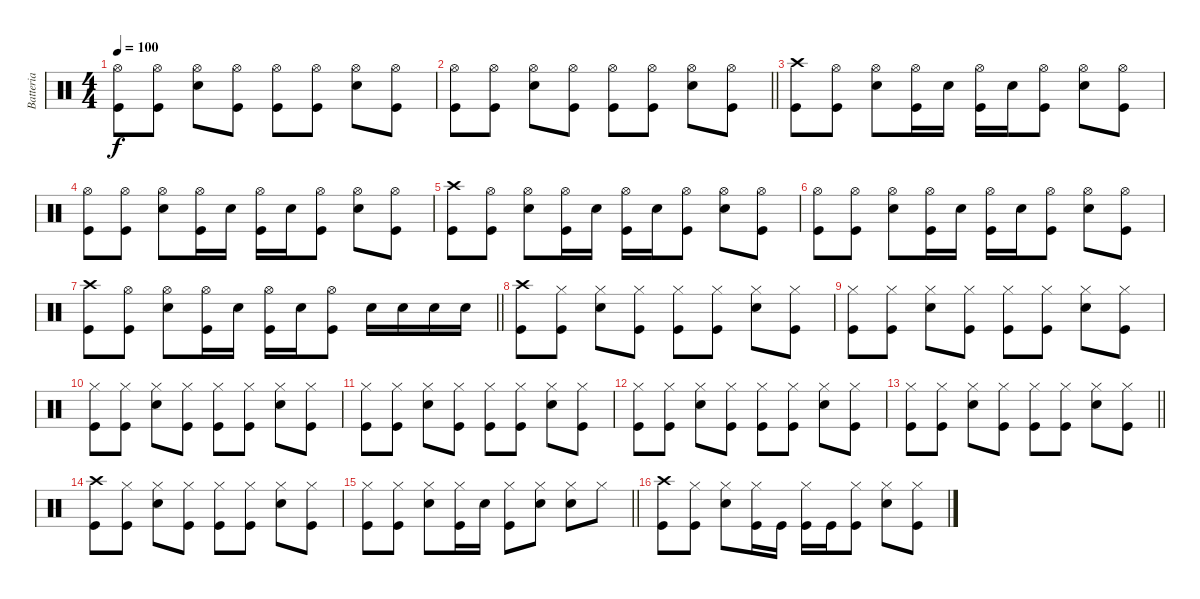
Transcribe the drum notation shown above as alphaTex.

\track ("Batteria" "Batteria") {instrument percussion}
\staff {score}
\articulation defaults
\ts (4 4)
\tempo 100
\clef neutral
\ks c
("Hi-Hat (open)" "Kick (hit)").8{dy f} ("Hi-Hat (open)" "Kick (hit)").8 ("Snare (hit) 2" "Hi-Hat (open)").8 ("Hi-Hat (open)" "Kick (hit)").8 ("Hi-Hat (open)" "Kick (hit)").8 ("Hi-Hat (open)" "Kick (hit)").8 ("Snare (hit) 2" "Hi-Hat (open)").8 ("Hi-Hat (open)" "Kick (hit)").8 |
\barLineRight lightlight
("Hi-Hat (open)" "Kick (hit)").8 ("Hi-Hat (open)" "Kick (hit)").8 ("Snare (hit) 2" "Hi-Hat (open)").8 ("Hi-Hat (open)" "Kick (hit)").8 ("Hi-Hat (open)" "Kick (hit)").8 ("Hi-Hat (open)" "Kick (hit)").8 ("Snare (hit) 2" "Hi-Hat (open)").8 ("Hi-Hat (open)" "Kick (hit)").8 |
("Crash high (hit)" "Kick (hit)").8 ("Hi-Hat (open)" "Kick (hit)").8 ("Snare (hit) 2" "Hi-Hat (open)").8 ("Hi-Hat (open)" "Kick (hit)").16 "Snare (hit) 2".16 ("Kick (hit)" "Hi-Hat (open)").16 "Snare (hit) 2".16 ("Kick (hit)" "Hi-Hat (open)").8 ("Hi-Hat (open)" "Snare (hit) 2").8 ("Kick (hit)" "Hi-Hat (open)").8 |
("Hi-Hat (open)" "Kick (hit)").8 ("Hi-Hat (open)" "Kick (hit)").8 ("Snare (hit) 2" "Hi-Hat (open)").8 ("Hi-Hat (open)" "Kick (hit)").16 "Snare (hit) 2".16 ("Kick (hit)" "Hi-Hat (open)").16 "Snare (hit) 2".16 ("Kick (hit)" "Hi-Hat (open)").8 ("Hi-Hat (open)" "Snare (hit) 2").8 ("Kick (hit)" "Hi-Hat (open)").8 |
("Crash high (hit)" "Kick (hit)").8 ("Hi-Hat (open)" "Kick (hit)").8 ("Snare (hit) 2" "Hi-Hat (open)").8 ("Hi-Hat (open)" "Kick (hit)").16 "Snare (hit) 2".16 ("Kick (hit)" "Hi-Hat (open)").16 "Snare (hit) 2".16 ("Kick (hit)" "Hi-Hat (open)").8 ("Hi-Hat (open)" "Snare (hit) 2").8 ("Kick (hit)" "Hi-Hat (open)").8 |
("Hi-Hat (open)" "Kick (hit)").8 ("Hi-Hat (open)" "Kick (hit)").8 ("Snare (hit) 2" "Hi-Hat (open)").8 ("Hi-Hat (open)" "Kick (hit)").16 "Snare (hit) 2".16 ("Kick (hit)" "Hi-Hat (open)").16 "Snare (hit) 2".16 ("Kick (hit)" "Hi-Hat (open)").8 ("Hi-Hat (open)" "Snare (hit) 2").8 ("Kick (hit)" "Hi-Hat (open)").8 |
\barLineRight lightlight
("Crash high (hit)" "Kick (hit)").8 ("Hi-Hat (open)" "Kick (hit)").8 ("Snare (hit) 2" "Hi-Hat (open)").8 ("Hi-Hat (open)" "Kick (hit)").16 "Snare (hit) 2".16 ("Kick (hit)" "Hi-Hat (open)").16 "Snare (hit) 2".16 ("Kick (hit)" "Hi-Hat (open)").8 "Snare (hit) 2".16 "Snare (hit) 2".16 "Snare (hit) 2".16 "Snare (hit) 2".16 |
("Crash high (hit)" "Kick (hit)").8 ("Hi-Hat (closed)" "Kick (hit)").8 ("Snare (hit) 2" "Hi-Hat (closed)").8 ("Hi-Hat (closed)" "Kick (hit)").8 ("Hi-Hat (closed)" "Kick (hit)").8 ("Hi-Hat (closed)" "Kick (hit)").8 ("Snare (hit) 2" "Hi-Hat (closed)").8 ("Hi-Hat (closed)" "Kick (hit)").8 |
("Hi-Hat (closed)" "Kick (hit)").8 ("Hi-Hat (closed)" "Kick (hit)").8 ("Snare (hit) 2" "Hi-Hat (closed)").8 ("Hi-Hat (closed)" "Kick (hit)").8 ("Hi-Hat (closed)" "Kick (hit)").8 ("Hi-Hat (closed)" "Kick (hit)").8 ("Snare (hit) 2" "Hi-Hat (closed)").8 ("Hi-Hat (closed)" "Kick (hit)").8 |
("Hi-Hat (closed)" "Kick (hit)").8 ("Hi-Hat (closed)" "Kick (hit)").8 ("Snare (hit) 2" "Hi-Hat (closed)").8 ("Hi-Hat (closed)" "Kick (hit)").8 ("Hi-Hat (closed)" "Kick (hit)").8 ("Hi-Hat (closed)" "Kick (hit)").8 ("Snare (hit) 2" "Hi-Hat (closed)").8 ("Hi-Hat (closed)" "Kick (hit)").8 |
("Hi-Hat (closed)" "Kick (hit)").8 ("Hi-Hat (closed)" "Kick (hit)").8 ("Snare (hit) 2" "Hi-Hat (closed)").8 ("Hi-Hat (closed)" "Kick (hit)").8 ("Hi-Hat (closed)" "Kick (hit)").8 ("Hi-Hat (closed)" "Kick (hit)").8 ("Snare (hit) 2" "Hi-Hat (closed)").8 ("Hi-Hat (closed)" "Kick (hit)").8 |
("Hi-Hat (closed)" "Kick (hit)").8 ("Hi-Hat (closed)" "Kick (hit)").8 ("Snare (hit) 2" "Hi-Hat (closed)").8 ("Hi-Hat (closed)" "Kick (hit)").8 ("Hi-Hat (closed)" "Kick (hit)").8 ("Hi-Hat (closed)" "Kick (hit)").8 ("Snare (hit) 2" "Hi-Hat (closed)").8 ("Hi-Hat (closed)" "Kick (hit)").8 |
\barLineRight lightlight
("Hi-Hat (closed)" "Kick (hit)").8 ("Hi-Hat (closed)" "Kick (hit)").8 ("Snare (hit) 2" "Hi-Hat (closed)").8 ("Hi-Hat (closed)" "Kick (hit)").8 ("Hi-Hat (closed)" "Kick (hit)").8 ("Hi-Hat (closed)" "Kick (hit)").8 ("Snare (hit) 2" "Hi-Hat (closed)").8 ("Hi-Hat (closed)" "Kick (hit)").8 |
("Crash high (hit)" "Kick (hit)").8 ("Hi-Hat (closed)" "Kick (hit)").8 ("Snare (hit) 2" "Hi-Hat (closed)").8 ("Hi-Hat (closed)" "Kick (hit)").8 ("Hi-Hat (closed)" "Kick (hit)").8 ("Hi-Hat (closed)" "Kick (hit)").8 ("Snare (hit) 2" "Hi-Hat (closed)").8 ("Hi-Hat (closed)" "Kick (hit)").8 |
\barLineRight lightlight
("Hi-Hat (closed)" "Kick (hit)").8 ("Hi-Hat (closed)" "Kick (hit)").8 ("Snare (hit) 2" "Hi-Hat (closed)").8 ("Hi-Hat (closed)" "Kick (hit)").16 "Snare (hit) 2".16 ("Kick (hit)" "Hi-Hat (closed)").8 ("Snare (hit) 2" "Hi-Hat (closed)").8 ("Snare (hit) 2" "Hi-Hat (closed)").8 "Hi-Hat (closed)".8 |
("Crash high (hit)" "Kick (hit)").8 ("Hi-Hat (closed)" "Kick (hit)").8 ("Snare (hit) 2" "Hi-Hat (closed)").8 ("Hi-Hat (closed)" "Kick (hit)").16 "Kick (hit)".16 ("Kick (hit)" "Hi-Hat (closed)").16 "Kick (hit)".16 ("Kick (hit)" "Hi-Hat (closed)").8 ("Hi-Hat (closed)" "Snare (hit) 2").8 ("Kick (hit)" "Hi-Hat (closed)").8
